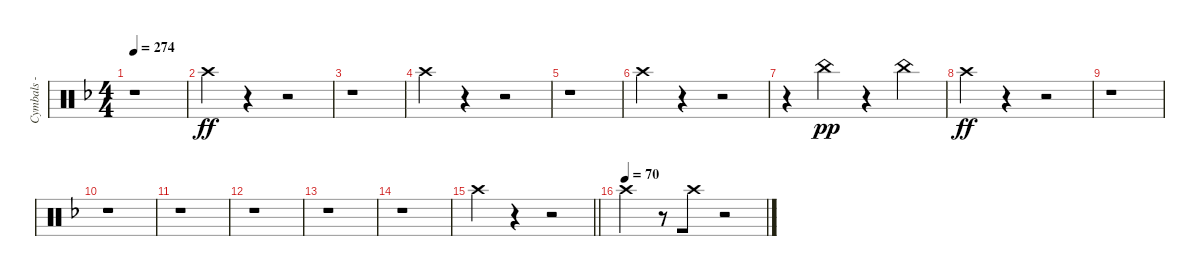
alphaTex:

\track ("Cymbals - crash" "Cymbals - ") {instrument percussion}
\staff {score}
\articulation defaults
\ts (4 4)
\tempo 274
\clef neutral
\ks dminor
r.1{dy ff} |
"Crash high (hit)".4 r.4 r.2 |
r.1 |
"Crash high (hit)".4 r.4 r.2 |
r.1 |
"Crash high (hit)".4 r.4 r.2 |
r.4 "China (hit)".4{dy pp} r.4 "China (hit)".4 |
"Crash high (hit)".4{dy ff} r.4 r.2 |
r.1 |
r.1 |
r.1 |
r.1 |
r.1 |
r.1 |
\barLineRight lightlight "Crash high (hit)".4
r.4 r.2 |
\tempo (70)
"Crash high (hit)".4{beam merge} r.8 "Crash high (hit)".8 r.2
